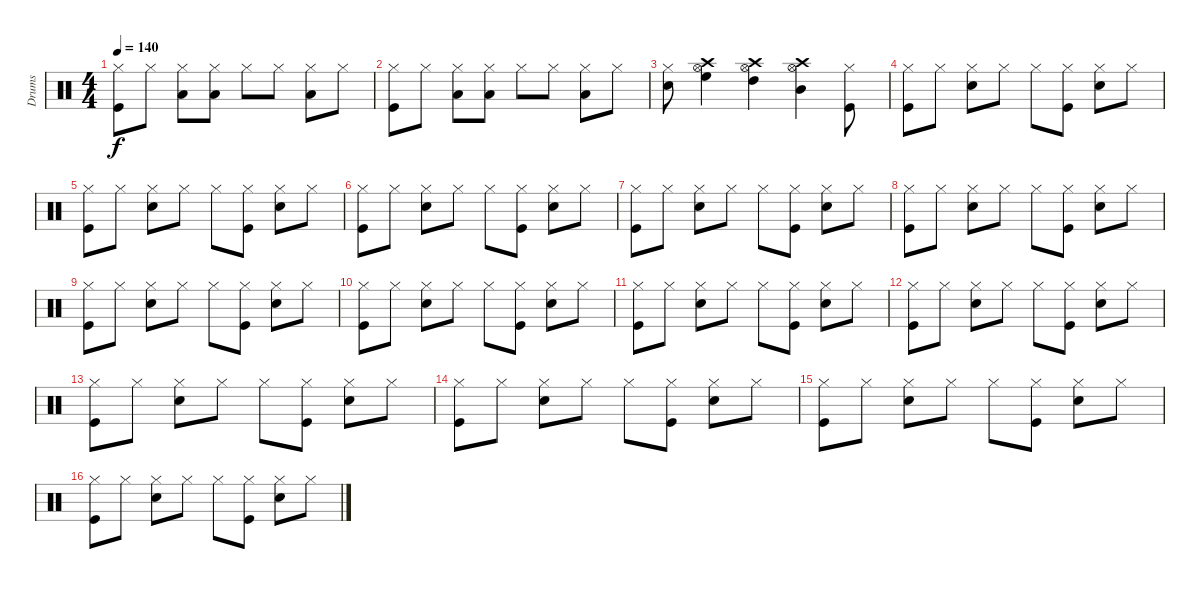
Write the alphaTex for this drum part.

\track ("Drums" "Drums") {instrument percussion}
\staff {score}
\articulation defaults
\ts (4 4)
\tempo 140
\clef neutral
\ks c
("Hi-Hat (closed)" "Kick (hit)").8{dy f} "Hi-Hat (closed)".8 ("Hi-Hat (closed)" "Low Tom (hit)").8 ("Hi-Hat (closed)" "Low Tom (hit)").8 "Hi-Hat (closed)".8 "Hi-Hat (closed)".8 ("Hi-Hat (closed)" "Low Tom (hit)").8 "Hi-Hat (closed)".8 |
("Hi-Hat (closed)" "Kick (hit)").8 "Hi-Hat (closed)".8 ("Hi-Hat (closed)" "Low Tom (hit)").8 ("Hi-Hat (closed)" "Low Tom (hit)").8 "Hi-Hat (closed)".8 "Hi-Hat (closed)".8 ("Hi-Hat (closed)" "Low Tom (hit)").8 "Hi-Hat (closed)".8 |
("Hi-Hat (closed)" "Snare (hit) 2").8 ("Hi-Hat (open)" "Crash high (hit)" "High Floor Tom (hit)").4 ("Hi-Hat (open)" "Crash high (hit)" "High Tom (hit)").4 ("Hi-Hat (open)" "Crash high (hit)" "Mid Tom (hit)").4 ("Hi-Hat (closed)" "Kick (hit)").8 |
("Hi-Hat (closed)" "Kick (hit)").8 "Hi-Hat (closed)".8 ("Hi-Hat (closed)" "Snare (hit) 2").8 "Hi-Hat (closed)".8 "Hi-Hat (closed)".8 ("Hi-Hat (closed)" "Kick (hit)").8 ("Hi-Hat (closed)" "Snare (hit) 2").8 "Hi-Hat (closed)".8 |
("Hi-Hat (closed)" "Kick (hit)").8 "Hi-Hat (closed)".8 ("Hi-Hat (closed)" "Snare (hit) 2").8 "Hi-Hat (closed)".8 "Hi-Hat (closed)".8 ("Hi-Hat (closed)" "Kick (hit)").8 ("Hi-Hat (closed)" "Snare (hit) 2").8 "Hi-Hat (closed)".8 |
("Hi-Hat (closed)" "Kick (hit)").8 "Hi-Hat (closed)".8 ("Hi-Hat (closed)" "Snare (hit) 2").8 "Hi-Hat (closed)".8 "Hi-Hat (closed)".8 ("Hi-Hat (closed)" "Kick (hit)").8 ("Hi-Hat (closed)" "Snare (hit) 2").8 "Hi-Hat (closed)".8 |
("Hi-Hat (closed)" "Kick (hit)").8 "Hi-Hat (closed)".8 ("Hi-Hat (closed)" "Snare (hit) 2").8 "Hi-Hat (closed)".8 "Hi-Hat (closed)".8 ("Hi-Hat (closed)" "Kick (hit)").8 ("Hi-Hat (closed)" "Snare (hit) 2").8 "Hi-Hat (closed)".8 |
("Hi-Hat (closed)" "Kick (hit)").8 "Hi-Hat (closed)".8 ("Hi-Hat (closed)" "Snare (hit) 2").8 "Hi-Hat (closed)".8 "Hi-Hat (closed)".8 ("Hi-Hat (closed)" "Kick (hit)").8 ("Hi-Hat (closed)" "Snare (hit) 2").8 "Hi-Hat (closed)".8 |
("Hi-Hat (closed)" "Kick (hit)").8 "Hi-Hat (closed)".8 ("Hi-Hat (closed)" "Snare (hit) 2").8 "Hi-Hat (closed)".8 "Hi-Hat (closed)".8 ("Hi-Hat (closed)" "Kick (hit)").8 ("Hi-Hat (closed)" "Snare (hit) 2").8 "Hi-Hat (closed)".8 |
("Hi-Hat (closed)" "Kick (hit)").8 "Hi-Hat (closed)".8 ("Hi-Hat (closed)" "Snare (hit) 2").8 "Hi-Hat (closed)".8 "Hi-Hat (closed)".8 ("Hi-Hat (closed)" "Kick (hit)").8 ("Hi-Hat (closed)" "Snare (hit) 2").8 "Hi-Hat (closed)".8 |
("Hi-Hat (closed)" "Kick (hit)").8 "Hi-Hat (closed)".8 ("Hi-Hat (closed)" "Snare (hit) 2").8 "Hi-Hat (closed)".8 "Hi-Hat (closed)".8 ("Hi-Hat (closed)" "Kick (hit)").8 ("Hi-Hat (closed)" "Snare (hit) 2").8 "Hi-Hat (closed)".8 |
("Hi-Hat (closed)" "Kick (hit)").8 "Hi-Hat (closed)".8 ("Hi-Hat (closed)" "Snare (hit) 2").8 "Hi-Hat (closed)".8 "Hi-Hat (closed)".8 ("Hi-Hat (closed)" "Kick (hit)").8 ("Hi-Hat (closed)" "Snare (hit) 2").8 "Hi-Hat (closed)".8 |
("Hi-Hat (closed)" "Kick (hit)").8 "Hi-Hat (closed)".8 ("Hi-Hat (closed)" "Snare (hit) 2").8 "Hi-Hat (closed)".8 "Hi-Hat (closed)".8 ("Hi-Hat (closed)" "Kick (hit)").8 ("Hi-Hat (closed)" "Snare (hit) 2").8 "Hi-Hat (closed)".8 |
("Hi-Hat (closed)" "Kick (hit)").8 "Hi-Hat (closed)".8 ("Hi-Hat (closed)" "Snare (hit) 2").8 "Hi-Hat (closed)".8 "Hi-Hat (closed)".8 ("Hi-Hat (closed)" "Kick (hit)").8 ("Hi-Hat (closed)" "Snare (hit) 2").8 "Hi-Hat (closed)".8 |
("Hi-Hat (closed)" "Kick (hit)").8 "Hi-Hat (closed)".8 ("Hi-Hat (closed)" "Snare (hit) 2").8 "Hi-Hat (closed)".8 "Hi-Hat (closed)".8 ("Hi-Hat (closed)" "Kick (hit)").8 ("Hi-Hat (closed)" "Snare (hit) 2").8 "Hi-Hat (closed)".8 |
("Hi-Hat (closed)" "Kick (hit)").8 "Hi-Hat (closed)".8 ("Hi-Hat (closed)" "Snare (hit) 2").8 "Hi-Hat (closed)".8 "Hi-Hat (closed)".8 ("Hi-Hat (closed)" "Kick (hit)").8 ("Hi-Hat (closed)" "Snare (hit) 2").8 "Hi-Hat (closed)".8
